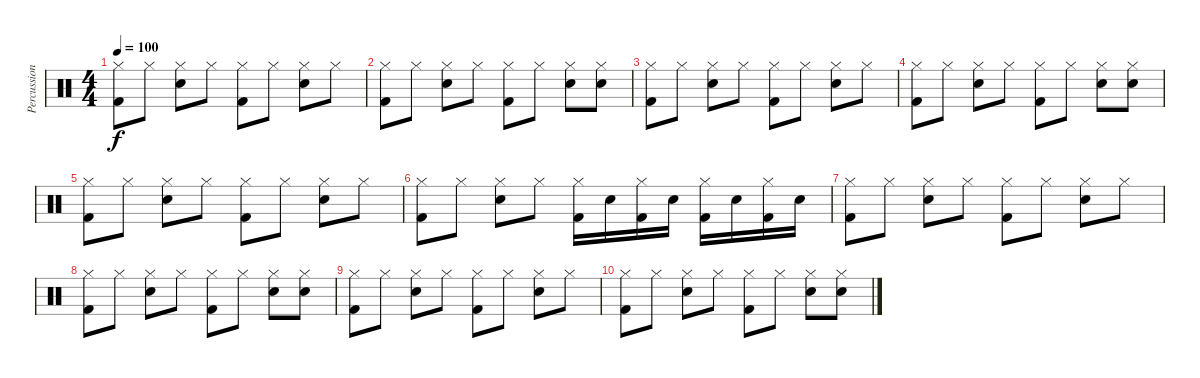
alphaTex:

\track ("Percussions" "Percussion") {instrument percussion}
\staff {score}
\articulation defaults
\ts (4 4)
\tempo 100
\clef neutral
\ks c
("Hi-Hat (closed)" "Kick (hit) 2").8{dy f} "Hi-Hat (closed)".8 ("Hi-Hat (closed)" "Snare (hit) 2").8 "Hi-Hat (closed)".8 ("Hi-Hat (closed)" "Kick (hit) 2").8 "Hi-Hat (closed)".8 ("Hi-Hat (closed)" "Snare (hit) 2").8 "Hi-Hat (closed)".8 |
("Hi-Hat (closed)" "Kick (hit) 2").8 "Hi-Hat (closed)".8 ("Hi-Hat (closed)" "Snare (hit) 2").8 "Hi-Hat (closed)".8 ("Hi-Hat (closed)" "Kick (hit) 2").8 "Hi-Hat (closed)".8 ("Hi-Hat (closed)" "Snare (hit) 2").8 ("Hi-Hat (closed)" "Snare (hit) 2").8 |
("Hi-Hat (closed)" "Kick (hit) 2").8 "Hi-Hat (closed)".8 ("Hi-Hat (closed)" "Snare (hit) 2").8 "Hi-Hat (closed)".8 ("Hi-Hat (closed)" "Kick (hit) 2").8 "Hi-Hat (closed)".8 ("Hi-Hat (closed)" "Snare (hit) 2").8 "Hi-Hat (closed)".8 |
("Hi-Hat (closed)" "Kick (hit) 2").8 "Hi-Hat (closed)".8 ("Hi-Hat (closed)" "Snare (hit) 2").8 "Hi-Hat (closed)".8 ("Hi-Hat (closed)" "Kick (hit) 2").8 "Hi-Hat (closed)".8 ("Hi-Hat (closed)" "Snare (hit) 2").8 ("Hi-Hat (closed)" "Snare (hit) 2").8 |
("Hi-Hat (closed)" "Kick (hit) 2").8 "Hi-Hat (closed)".8 ("Hi-Hat (closed)" "Snare (hit) 2").8 "Hi-Hat (closed)".8 ("Hi-Hat (closed)" "Kick (hit) 2").8 "Hi-Hat (closed)".8 ("Hi-Hat (closed)" "Snare (hit) 2").8 "Hi-Hat (closed)".8 |
("Hi-Hat (closed)" "Kick (hit) 2").8 "Hi-Hat (closed)".8 ("Hi-Hat (closed)" "Snare (hit) 2").8 "Hi-Hat (closed)".8 ("Kick (hit) 2" "Hi-Hat (closed)").16 "Snare (hit) 2".16 ("Kick (hit) 2" "Hi-Hat (closed)").16 "Snare (hit) 2".16 ("Kick (hit) 2" "Hi-Hat (closed)").16 "Snare (hit) 2".16 ("Kick (hit) 2" "Hi-Hat (closed)").16 "Snare (hit) 2".16 |
("Hi-Hat (closed)" "Kick (hit) 2").8 "Hi-Hat (closed)".8 ("Hi-Hat (closed)" "Snare (hit) 2").8 "Hi-Hat (closed)".8 ("Hi-Hat (closed)" "Kick (hit) 2").8 "Hi-Hat (closed)".8 ("Hi-Hat (closed)" "Snare (hit) 2").8 "Hi-Hat (closed)".8 |
("Hi-Hat (closed)" "Kick (hit) 2").8 "Hi-Hat (closed)".8 ("Hi-Hat (closed)" "Snare (hit) 2").8 "Hi-Hat (closed)".8 ("Hi-Hat (closed)" "Kick (hit) 2").8 "Hi-Hat (closed)".8 ("Hi-Hat (closed)" "Snare (hit) 2").8 ("Hi-Hat (closed)" "Snare (hit) 2").8 |
("Hi-Hat (closed)" "Kick (hit) 2").8 "Hi-Hat (closed)".8 ("Hi-Hat (closed)" "Snare (hit) 2").8 "Hi-Hat (closed)".8 ("Hi-Hat (closed)" "Kick (hit) 2").8 "Hi-Hat (closed)".8 ("Hi-Hat (closed)" "Snare (hit) 2").8 "Hi-Hat (closed)".8 |
("Hi-Hat (closed)" "Kick (hit) 2").8 "Hi-Hat (closed)".8 ("Hi-Hat (closed)" "Snare (hit) 2").8 "Hi-Hat (closed)".8 ("Hi-Hat (closed)" "Kick (hit) 2").8 "Hi-Hat (closed)".8 ("Hi-Hat (closed)" "Snare (hit) 2").8 ("Hi-Hat (closed)" "Snare (hit) 2").8
